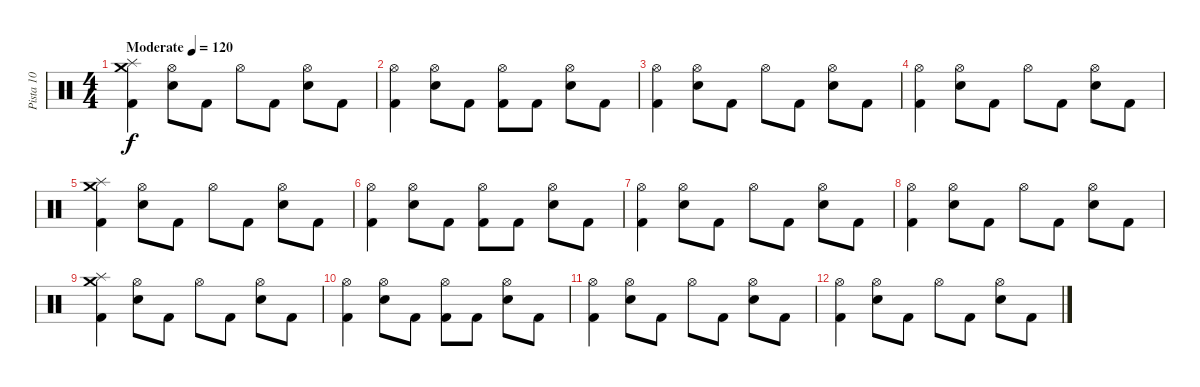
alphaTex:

\track ("Pista 10" "Pista 10") {instrument percussion}
\staff {score}
\articulation defaults
\ts (4 4)
\tempo (120 "Moderate")
\clef neutral
\ks c
("Splash (hit)" "Crash medium (hit)" "Kick (hit) 2").4{dy f} ("Hi-Hat (open)" "Electric Snare (hit)").8 "Kick (hit) 2".8 "Hi-Hat (open)".8 "Kick (hit) 2".8 ("Hi-Hat (open)" "Electric Snare (hit)").8 "Kick (hit) 2".8 |
("Kick (hit) 2" "Hi-Hat (open)").4 ("Electric Snare (hit)" "Hi-Hat (open)").8 "Kick (hit) 2".8 ("Kick (hit) 2" "Hi-Hat (open)").8 "Kick (hit) 2".8 ("Electric Snare (hit)" "Hi-Hat (open)").8 "Kick (hit) 2".8 |
("Hi-Hat (open)" "Kick (hit) 2").4 ("Hi-Hat (open)" "Electric Snare (hit)").8 "Kick (hit) 2".8 "Hi-Hat (open)".8 "Kick (hit) 2".8 ("Hi-Hat (open)" "Electric Snare (hit)").8 "Kick (hit) 2".8 |
("Kick (hit) 2" "Hi-Hat (open)").4 ("Electric Snare (hit)" "Hi-Hat (open)").8 "Kick (hit) 2".8 "Hi-Hat (open)".8 "Kick (hit) 2".8 ("Electric Snare (hit)" "Hi-Hat (open)").8 "Kick (hit) 2".8 |
("Splash (hit)" "Crash medium (hit)" "Kick (hit) 2").4 ("Hi-Hat (open)" "Electric Snare (hit)").8 "Kick (hit) 2".8 "Hi-Hat (open)".8 "Kick (hit) 2".8 ("Hi-Hat (open)" "Electric Snare (hit)").8 "Kick (hit) 2".8 |
("Kick (hit) 2" "Hi-Hat (open)").4 ("Electric Snare (hit)" "Hi-Hat (open)").8 "Kick (hit) 2".8 ("Kick (hit) 2" "Hi-Hat (open)").8 "Kick (hit) 2".8 ("Electric Snare (hit)" "Hi-Hat (open)").8 "Kick (hit) 2".8 |
("Hi-Hat (open)" "Kick (hit) 2").4 ("Hi-Hat (open)" "Electric Snare (hit)").8 "Kick (hit) 2".8 "Hi-Hat (open)".8 "Kick (hit) 2".8 ("Hi-Hat (open)" "Electric Snare (hit)").8 "Kick (hit) 2".8 |
("Kick (hit) 2" "Hi-Hat (open)").4 ("Electric Snare (hit)" "Hi-Hat (open)").8 "Kick (hit) 2".8 "Hi-Hat (open)".8 "Kick (hit) 2".8 ("Electric Snare (hit)" "Hi-Hat (open)").8 "Kick (hit) 2".8 |
("Splash (hit)" "Crash medium (hit)" "Kick (hit) 2").4 ("Hi-Hat (open)" "Electric Snare (hit)").8 "Kick (hit) 2".8 "Hi-Hat (open)".8 "Kick (hit) 2".8 ("Hi-Hat (open)" "Electric Snare (hit)").8 "Kick (hit) 2".8 |
("Kick (hit) 2" "Hi-Hat (open)").4 ("Electric Snare (hit)" "Hi-Hat (open)").8 "Kick (hit) 2".8 ("Kick (hit) 2" "Hi-Hat (open)").8 "Kick (hit) 2".8 ("Electric Snare (hit)" "Hi-Hat (open)").8 "Kick (hit) 2".8 |
("Hi-Hat (open)" "Kick (hit) 2").4 ("Hi-Hat (open)" "Electric Snare (hit)").8 "Kick (hit) 2".8 "Hi-Hat (open)".8 "Kick (hit) 2".8 ("Hi-Hat (open)" "Electric Snare (hit)").8 "Kick (hit) 2".8 |
("Kick (hit) 2" "Hi-Hat (open)").4 ("Electric Snare (hit)" "Hi-Hat (open)").8 "Kick (hit) 2".8 "Hi-Hat (open)".8 "Kick (hit) 2".8 ("Electric Snare (hit)" "Hi-Hat (open)").8 "Kick (hit) 2".8
